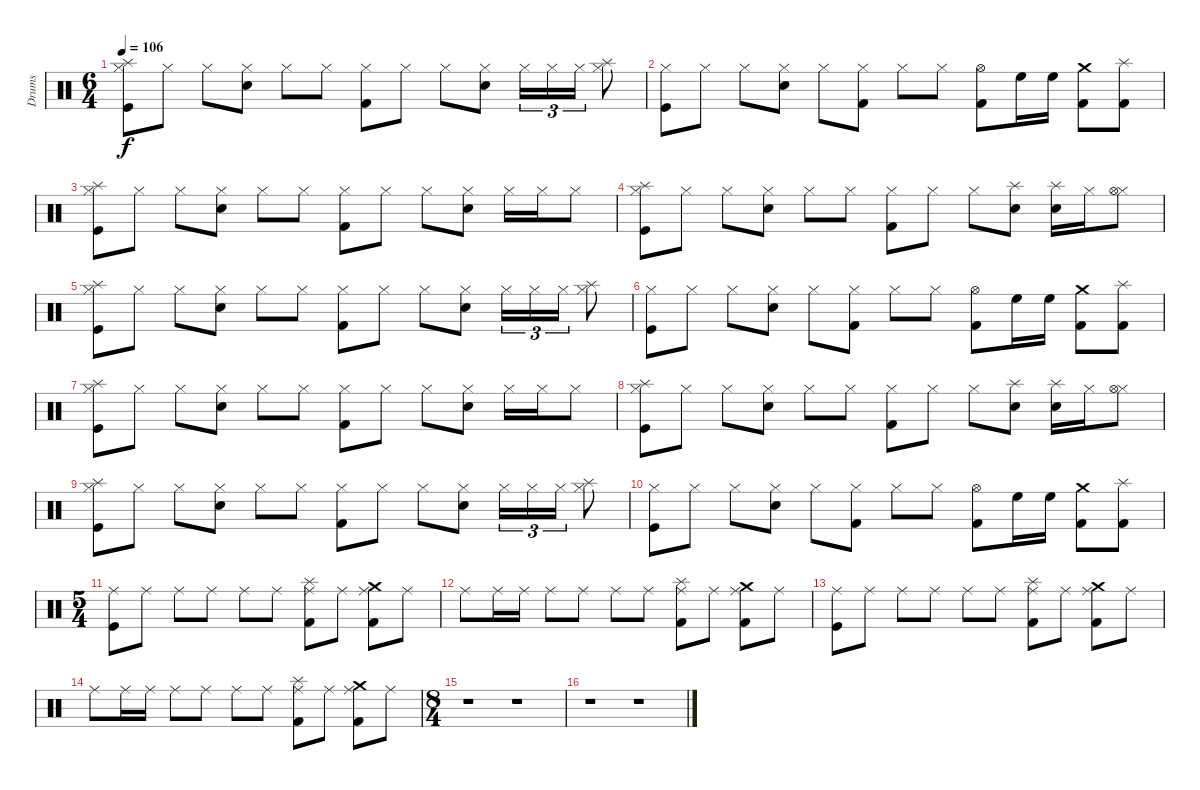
\track ("Drums" "Drums") {instrument percussion}
\staff {score}
\articulation defaults
\ts (6 4)
\tempo 106
\clef neutral
\ks c
("Hi-Hat (closed)" "Splash (hit)" "Kick (hit)").8{dy f} "Hi-Hat (closed)".8 "Hi-Hat (closed)".8 ("Hi-Hat (closed)" "Electric Snare (hit)").8 "Hi-Hat (closed)".8 "Hi-Hat (closed)".8 ("Hi-Hat (closed)" "Kick (hit) 2").8 "Hi-Hat (closed)".8 "Hi-Hat (closed)".8 ("Hi-Hat (closed)" "Electric Snare (hit)").8 "Hi-Hat (closed)".16{tu (3 2)} "Hi-Hat (closed)".16{tu (3 2)} "Hi-Hat (closed)".16{tu (3 2)} ("Hi-Hat (closed)" "Splash (hit)").8 |
("Hi-Hat (closed)" "Kick (hit)").8 "Hi-Hat (closed)".8 "Hi-Hat (closed)".8 ("Hi-Hat (closed)" "Electric Snare (hit)").8 "Hi-Hat (closed)".8 ("Hi-Hat (closed)" "Kick (hit) 2").8 "Hi-Hat (closed)".8 "Hi-Hat (closed)".8 ("Hi-Hat (open)" "Kick (hit) 2").8 "High Floor Tom (hit)".16 "High Floor Tom (hit)".16 ("Crash medium (hit)" "Kick (hit) 2").8 ("Splash (hit)" "Kick (hit) 2").8 |
("Hi-Hat (closed)" "Splash (hit)" "Kick (hit)").8 "Hi-Hat (closed)".8 "Hi-Hat (closed)".8 ("Hi-Hat (closed)" "Electric Snare (hit)").8 "Hi-Hat (closed)".8 "Hi-Hat (closed)".8 ("Hi-Hat (closed)" "Kick (hit) 2").8 "Hi-Hat (closed)".8 "Hi-Hat (closed)".8 ("Hi-Hat (closed)" "Electric Snare (hit)").8 "Hi-Hat (closed)".16 "Hi-Hat (closed)".16 "Hi-Hat (closed)".8 |
("Hi-Hat (closed)" "Splash (hit)" "Kick (hit)").8 "Hi-Hat (closed)".8 "Hi-Hat (closed)".8 ("Hi-Hat (closed)" "Electric Snare (hit)").8 "Hi-Hat (closed)".8 "Hi-Hat (closed)".8 ("Hi-Hat (closed)" "Kick (hit) 2").8 "Hi-Hat (closed)".8 "Hi-Hat (closed)".8 ("Splash (hit)" "Electric Snare (hit)").8 ("Splash (hit)" "Electric Snare (hit)").16 "Hi-Hat (closed)".16 ("Hi-Hat (closed)" "Hi-Hat (open)").8 |
("Hi-Hat (closed)" "Splash (hit)" "Kick (hit)").8 "Hi-Hat (closed)".8 "Hi-Hat (closed)".8 ("Hi-Hat (closed)" "Electric Snare (hit)").8 "Hi-Hat (closed)".8 "Hi-Hat (closed)".8 ("Hi-Hat (closed)" "Kick (hit) 2").8 "Hi-Hat (closed)".8 "Hi-Hat (closed)".8 ("Hi-Hat (closed)" "Electric Snare (hit)").8 "Hi-Hat (closed)".16{tu (3 2)} "Hi-Hat (closed)".16{tu (3 2)} "Hi-Hat (closed)".16{tu (3 2)} ("Hi-Hat (closed)" "Splash (hit)").8 |
("Hi-Hat (closed)" "Kick (hit)").8 "Hi-Hat (closed)".8 "Hi-Hat (closed)".8 ("Hi-Hat (closed)" "Electric Snare (hit)").8 "Hi-Hat (closed)".8 ("Hi-Hat (closed)" "Kick (hit) 2").8 "Hi-Hat (closed)".8 "Hi-Hat (closed)".8 ("Hi-Hat (open)" "Kick (hit) 2").8 "High Floor Tom (hit)".16 "High Floor Tom (hit)".16 ("Crash medium (hit)" "Kick (hit) 2").8 ("Splash (hit)" "Kick (hit) 2").8 |
("Hi-Hat (closed)" "Splash (hit)" "Kick (hit)").8 "Hi-Hat (closed)".8 "Hi-Hat (closed)".8 ("Hi-Hat (closed)" "Electric Snare (hit)").8 "Hi-Hat (closed)".8 "Hi-Hat (closed)".8 ("Hi-Hat (closed)" "Kick (hit) 2").8 "Hi-Hat (closed)".8 "Hi-Hat (closed)".8 ("Hi-Hat (closed)" "Electric Snare (hit)").8 "Hi-Hat (closed)".16 "Hi-Hat (closed)".16 "Hi-Hat (closed)".8 |
("Hi-Hat (closed)" "Splash (hit)" "Kick (hit)").8 "Hi-Hat (closed)".8 "Hi-Hat (closed)".8 ("Hi-Hat (closed)" "Electric Snare (hit)").8 "Hi-Hat (closed)".8 "Hi-Hat (closed)".8 ("Hi-Hat (closed)" "Kick (hit) 2").8 "Hi-Hat (closed)".8 "Hi-Hat (closed)".8 ("Splash (hit)" "Electric Snare (hit)").8 ("Splash (hit)" "Electric Snare (hit)").16 "Hi-Hat (closed)".16 ("Hi-Hat (closed)" "Hi-Hat (open)").8 |
("Hi-Hat (closed)" "Splash (hit)" "Kick (hit)").8 "Hi-Hat (closed)".8 "Hi-Hat (closed)".8 ("Hi-Hat (closed)" "Electric Snare (hit)").8 "Hi-Hat (closed)".8 "Hi-Hat (closed)".8 ("Hi-Hat (closed)" "Kick (hit) 2").8 "Hi-Hat (closed)".8 "Hi-Hat (closed)".8 ("Hi-Hat (closed)" "Electric Snare (hit)").8 "Hi-Hat (closed)".16{tu (3 2)} "Hi-Hat (closed)".16{tu (3 2)} "Hi-Hat (closed)".16{tu (3 2)} ("Hi-Hat (closed)" "Splash (hit)").8 |
("Hi-Hat (closed)" "Kick (hit)").8 "Hi-Hat (closed)".8 "Hi-Hat (closed)".8 ("Hi-Hat (closed)" "Electric Snare (hit)").8 "Hi-Hat (closed)".8 ("Hi-Hat (closed)" "Kick (hit) 2").8 "Hi-Hat (closed)".8 "Hi-Hat (closed)".8 ("Hi-Hat (open)" "Kick (hit) 2").8 "High Floor Tom (hit)".16 "High Floor Tom (hit)".16 ("Crash medium (hit)" "Kick (hit) 2").8 ("Splash (hit)" "Kick (hit) 2").8 |
\ts (5 4)
("Ride (middle)" "Kick (hit)").8 "Ride (middle)".8 "Ride (middle)".8 "Ride (middle)".8 "Ride (middle)".8 "Ride (middle)".8 ("Ride (middle)" "Splash (hit)" "Kick (hit) 2").8 "Ride (middle)".8 ("Ride (middle)" "Crash medium (hit)" "Kick (hit) 2").8 "Ride (middle)".8 |
"Ride (middle)".8 "Ride (middle)".16 "Ride (middle)".16 "Ride (middle)".8 "Ride (middle)".8 "Ride (middle)".8 "Ride (middle)".8 ("Ride (middle)" "Splash (hit)" "Kick (hit) 2").8 "Ride (middle)".8 ("Ride (middle)" "Crash medium (hit)" "Kick (hit) 2").8 "Ride (middle)".8 |
("Ride (middle)" "Kick (hit)").8 "Ride (middle)".8 "Ride (middle)".8 "Ride (middle)".8 "Ride (middle)".8 "Ride (middle)".8 ("Ride (middle)" "Splash (hit)" "Kick (hit) 2").8 "Ride (middle)".8 ("Ride (middle)" "Crash medium (hit)" "Kick (hit) 2").8 "Ride (middle)".8 |
"Ride (middle)".8 "Ride (middle)".16 "Ride (middle)".16 "Ride (middle)".8 "Ride (middle)".8 "Ride (middle)".8 "Ride (middle)".8 ("Ride (middle)" "Splash (hit)" "Kick (hit) 2").8 "Ride (middle)".8 ("Ride (middle)" "Crash medium (hit)" "Kick (hit) 2").8 "Ride (middle)".8 |
\ts (8 4)
r.1 r.1 |
r.1 r.1
